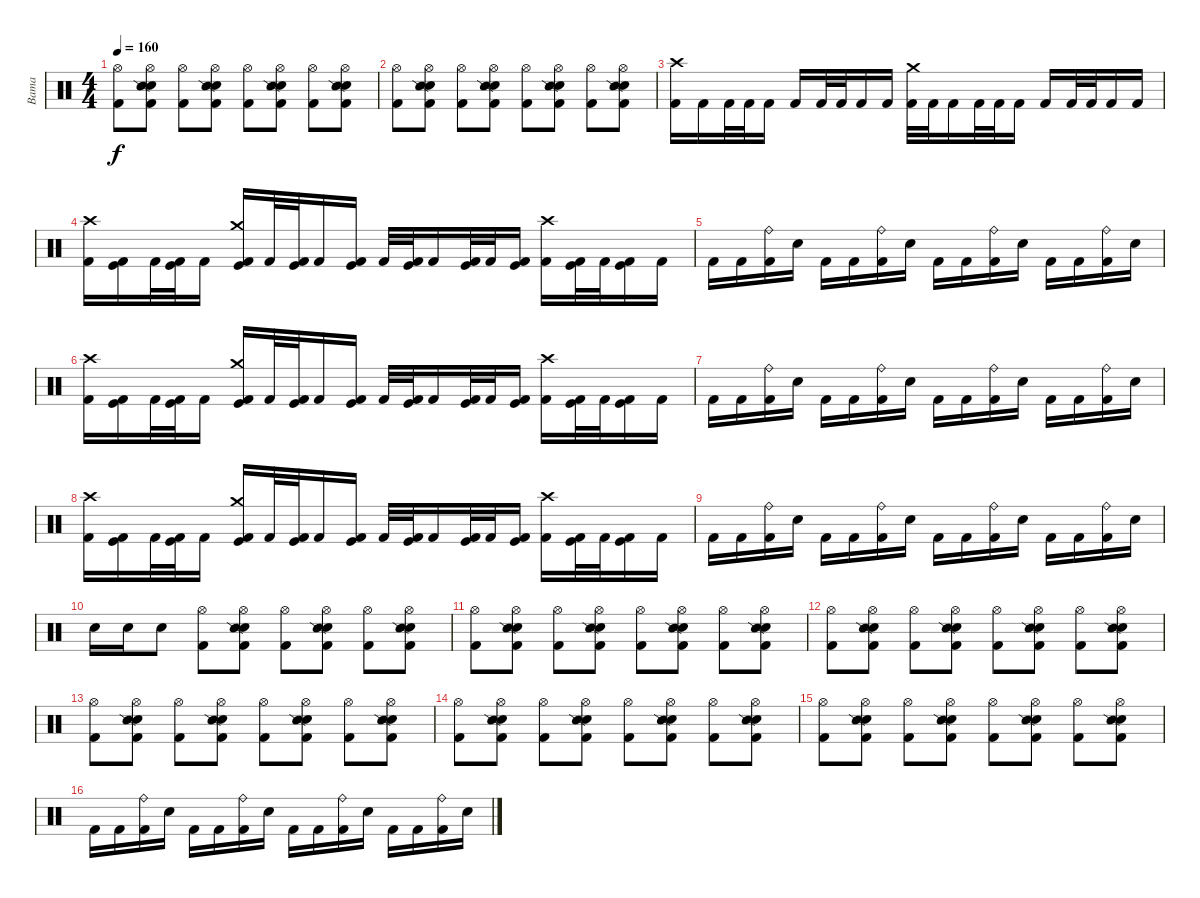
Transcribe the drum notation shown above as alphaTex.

\track ("Bama" "Bama") {instrument percussion}
\staff {score}
\articulation defaults
\ts (4 4)
\tempo 160
\clef neutral
\ks c
("Hi-Hat (open)" "Kick (hit) 2").8{dy f} ("Hi-Hat (open)" "Electric Snare (hit)" "Snare (side stick) 2" "Kick (hit) 2").8 ("Hi-Hat (open)" "Kick (hit) 2").8 ("Hi-Hat (open)" "Electric Snare (hit)" "Snare (side stick) 2" "Kick (hit) 2").8 ("Hi-Hat (open)" "Kick (hit) 2").8 ("Hi-Hat (open)" "Electric Snare (hit)" "Snare (side stick) 2" "Kick (hit) 2").8 ("Hi-Hat (open)" "Kick (hit) 2").8 ("Hi-Hat (open)" "Electric Snare (hit)" "Snare (side stick) 2" "Kick (hit) 2").8 |
("Hi-Hat (open)" "Kick (hit) 2").8 ("Hi-Hat (open)" "Electric Snare (hit)" "Snare (side stick) 2" "Kick (hit) 2").8 ("Hi-Hat (open)" "Kick (hit) 2").8 ("Hi-Hat (open)" "Electric Snare (hit)" "Snare (side stick) 2" "Kick (hit) 2").8 ("Hi-Hat (open)" "Kick (hit) 2").8 ("Hi-Hat (open)" "Electric Snare (hit)" "Snare (side stick) 2" "Kick (hit) 2").8 ("Hi-Hat (open)" "Kick (hit) 2").8 ("Hi-Hat (open)" "Electric Snare (hit)" "Snare (side stick) 2" "Kick (hit) 2").8 |
("Crash high (hit)" "Kick (hit) 2").16 "Kick (hit) 2".16 "Kick (hit) 2".32 "Kick (hit) 2".32 "Kick (hit) 2".16 "Kick (hit) 2".16 "Kick (hit) 2".32 "Kick (hit) 2".32 "Kick (hit) 2".16 "Kick (hit) 2".16 ("Crash medium (hit)" "Kick (hit) 2").32 "Kick (hit) 2".32 "Kick (hit) 2".16 "Kick (hit) 2".32 "Kick (hit) 2".32 "Kick (hit) 2".16 "Kick (hit) 2".16 "Kick (hit) 2".32 "Kick (hit) 2".32 "Kick (hit) 2".16 "Kick (hit) 2".16 |
("Crash high (hit)" "Kick (hit) 2").16 ("Kick (hit)" "Kick (hit) 2").16 "Kick (hit) 2".32 ("Kick (hit)" "Kick (hit) 2").32 "Kick (hit) 2".16 ("Crash medium (hit)" "Kick (hit)" "Kick (hit) 2").16 "Kick (hit) 2".32 ("Kick (hit)" "Kick (hit) 2").32 "Kick (hit) 2".16 ("Kick (hit)" "Kick (hit) 2").16 "Kick (hit) 2".32 ("Kick (hit)" "Kick (hit) 2").32 "Kick (hit) 2".16 ("Kick (hit)" "Kick (hit) 2").32 "Kick (hit) 2".32 ("Kick (hit)" "Kick (hit) 2").16 ("Crash high (hit)" "Kick (hit) 2").16 ("Kick (hit)" "Kick (hit) 2").32 "Kick (hit) 2".32 ("Kick (hit)" "Kick (hit) 2").16 "Kick (hit) 2".16 |
"Kick (hit) 2".16 "Kick (hit) 2".16 ("Ride (bell)" "Kick (hit) 2").16 "Electric Snare (hit)".16 "Kick (hit) 2".16 "Kick (hit) 2".16 ("Ride (bell)" "Kick (hit) 2").16 "Electric Snare (hit)".16 "Kick (hit) 2".16 "Kick (hit) 2".16 ("Ride (bell)" "Kick (hit) 2").16 "Electric Snare (hit)".16 "Kick (hit) 2".16 "Kick (hit) 2".16 ("Ride (bell)" "Kick (hit) 2").16 "Electric Snare (hit)".16 |
("Crash high (hit)" "Kick (hit) 2").16 ("Kick (hit)" "Kick (hit) 2").16 "Kick (hit) 2".32 ("Kick (hit)" "Kick (hit) 2").32 "Kick (hit) 2".16 ("Crash medium (hit)" "Kick (hit)" "Kick (hit) 2").16 "Kick (hit) 2".32 ("Kick (hit)" "Kick (hit) 2").32 "Kick (hit) 2".16 ("Kick (hit)" "Kick (hit) 2").16 "Kick (hit) 2".32 ("Kick (hit)" "Kick (hit) 2").32 "Kick (hit) 2".16 ("Kick (hit)" "Kick (hit) 2").32 "Kick (hit) 2".32 ("Kick (hit)" "Kick (hit) 2").16 ("Crash high (hit)" "Kick (hit) 2").16 ("Kick (hit)" "Kick (hit) 2").32 "Kick (hit) 2".32 ("Kick (hit)" "Kick (hit) 2").16 "Kick (hit) 2".16 |
"Kick (hit) 2".16 "Kick (hit) 2".16 ("Ride (bell)" "Kick (hit) 2").16 "Electric Snare (hit)".16 "Kick (hit) 2".16 "Kick (hit) 2".16 ("Ride (bell)" "Kick (hit) 2").16 "Electric Snare (hit)".16 "Kick (hit) 2".16 "Kick (hit) 2".16 ("Ride (bell)" "Kick (hit) 2").16 "Electric Snare (hit)".16 "Kick (hit) 2".16 "Kick (hit) 2".16 ("Ride (bell)" "Kick (hit) 2").16 "Electric Snare (hit)".16 |
("Crash high (hit)" "Kick (hit) 2").16 ("Kick (hit)" "Kick (hit) 2").16 "Kick (hit) 2".32 ("Kick (hit)" "Kick (hit) 2").32 "Kick (hit) 2".16 ("Crash medium (hit)" "Kick (hit)" "Kick (hit) 2").16 "Kick (hit) 2".32 ("Kick (hit)" "Kick (hit) 2").32 "Kick (hit) 2".16 ("Kick (hit)" "Kick (hit) 2").16 "Kick (hit) 2".32 ("Kick (hit)" "Kick (hit) 2").32 "Kick (hit) 2".16 ("Kick (hit)" "Kick (hit) 2").32 "Kick (hit) 2".32 ("Kick (hit)" "Kick (hit) 2").16 ("Crash high (hit)" "Kick (hit) 2").16 ("Kick (hit)" "Kick (hit) 2").32 "Kick (hit) 2".32 ("Kick (hit)" "Kick (hit) 2").16 "Kick (hit) 2".16 |
"Kick (hit) 2".16 "Kick (hit) 2".16 ("Ride (bell)" "Kick (hit) 2").16 "Electric Snare (hit)".16 "Kick (hit) 2".16 "Kick (hit) 2".16 ("Ride (bell)" "Kick (hit) 2").16 "Electric Snare (hit)".16 "Kick (hit) 2".16 "Kick (hit) 2".16 ("Ride (bell)" "Kick (hit) 2").16 "Electric Snare (hit)".16 "Kick (hit) 2".16 "Kick (hit) 2".16 ("Ride (bell)" "Kick (hit) 2").16 "Electric Snare (hit)".16 |
"Electric Snare (hit)".16 "Electric Snare (hit)".16 "Electric Snare (hit)".8 ("Hi-Hat (open)" "Kick (hit) 2").8 ("Hi-Hat (open)" "Electric Snare (hit)" "Snare (side stick) 2" "Kick (hit) 2").8 ("Hi-Hat (open)" "Kick (hit) 2").8 ("Hi-Hat (open)" "Electric Snare (hit)" "Snare (side stick) 2" "Kick (hit) 2").8 ("Hi-Hat (open)" "Kick (hit) 2").8 ("Hi-Hat (open)" "Electric Snare (hit)" "Snare (side stick) 2" "Kick (hit) 2").8 |
("Hi-Hat (open)" "Kick (hit) 2").8 ("Hi-Hat (open)" "Electric Snare (hit)" "Snare (side stick) 2" "Kick (hit) 2").8 ("Hi-Hat (open)" "Kick (hit) 2").8 ("Hi-Hat (open)" "Electric Snare (hit)" "Snare (side stick) 2" "Kick (hit) 2").8 ("Hi-Hat (open)" "Kick (hit) 2").8 ("Hi-Hat (open)" "Electric Snare (hit)" "Snare (side stick) 2" "Kick (hit) 2").8 ("Hi-Hat (open)" "Kick (hit) 2").8 ("Hi-Hat (open)" "Electric Snare (hit)" "Snare (side stick) 2" "Kick (hit) 2").8 |
("Hi-Hat (open)" "Kick (hit) 2").8 ("Hi-Hat (open)" "Electric Snare (hit)" "Snare (side stick) 2" "Kick (hit) 2").8 ("Hi-Hat (open)" "Kick (hit) 2").8 ("Hi-Hat (open)" "Electric Snare (hit)" "Snare (side stick) 2" "Kick (hit) 2").8 ("Hi-Hat (open)" "Kick (hit) 2").8 ("Hi-Hat (open)" "Electric Snare (hit)" "Snare (side stick) 2" "Kick (hit) 2").8 ("Hi-Hat (open)" "Kick (hit) 2").8 ("Hi-Hat (open)" "Electric Snare (hit)" "Snare (side stick) 2" "Kick (hit) 2").8 |
("Hi-Hat (open)" "Kick (hit) 2").8 ("Hi-Hat (open)" "Electric Snare (hit)" "Snare (side stick) 2" "Kick (hit) 2").8 ("Hi-Hat (open)" "Kick (hit) 2").8 ("Hi-Hat (open)" "Electric Snare (hit)" "Snare (side stick) 2" "Kick (hit) 2").8 ("Hi-Hat (open)" "Kick (hit) 2").8 ("Hi-Hat (open)" "Electric Snare (hit)" "Snare (side stick) 2" "Kick (hit) 2").8 ("Hi-Hat (open)" "Kick (hit) 2").8 ("Hi-Hat (open)" "Electric Snare (hit)" "Snare (side stick) 2" "Kick (hit) 2").8 |
("Hi-Hat (open)" "Kick (hit) 2").8 ("Hi-Hat (open)" "Electric Snare (hit)" "Snare (side stick) 2" "Kick (hit) 2").8 ("Hi-Hat (open)" "Kick (hit) 2").8 ("Hi-Hat (open)" "Electric Snare (hit)" "Snare (side stick) 2" "Kick (hit) 2").8 ("Hi-Hat (open)" "Kick (hit) 2").8 ("Hi-Hat (open)" "Electric Snare (hit)" "Snare (side stick) 2" "Kick (hit) 2").8 ("Hi-Hat (open)" "Kick (hit) 2").8 ("Hi-Hat (open)" "Electric Snare (hit)" "Snare (side stick) 2" "Kick (hit) 2").8 |
("Hi-Hat (open)" "Kick (hit) 2").8 ("Hi-Hat (open)" "Electric Snare (hit)" "Snare (side stick) 2" "Kick (hit) 2").8 ("Hi-Hat (open)" "Kick (hit) 2").8 ("Hi-Hat (open)" "Electric Snare (hit)" "Snare (side stick) 2" "Kick (hit) 2").8 ("Hi-Hat (open)" "Kick (hit) 2").8 ("Hi-Hat (open)" "Electric Snare (hit)" "Snare (side stick) 2" "Kick (hit) 2").8 ("Hi-Hat (open)" "Kick (hit) 2").8 ("Hi-Hat (open)" "Electric Snare (hit)" "Snare (side stick) 2" "Kick (hit) 2").8 |
"Kick (hit) 2".16 "Kick (hit) 2".16 ("Ride (bell)" "Kick (hit) 2").16 "Electric Snare (hit)".16 "Kick (hit) 2".16 "Kick (hit) 2".16 ("Ride (bell)" "Kick (hit) 2").16 "Electric Snare (hit)".16 "Kick (hit) 2".16 "Kick (hit) 2".16 ("Ride (bell)" "Kick (hit) 2").16 "Electric Snare (hit)".16 "Kick (hit) 2".16 "Kick (hit) 2".16 ("Ride (bell)" "Kick (hit) 2").16 "Electric Snare (hit)".16
